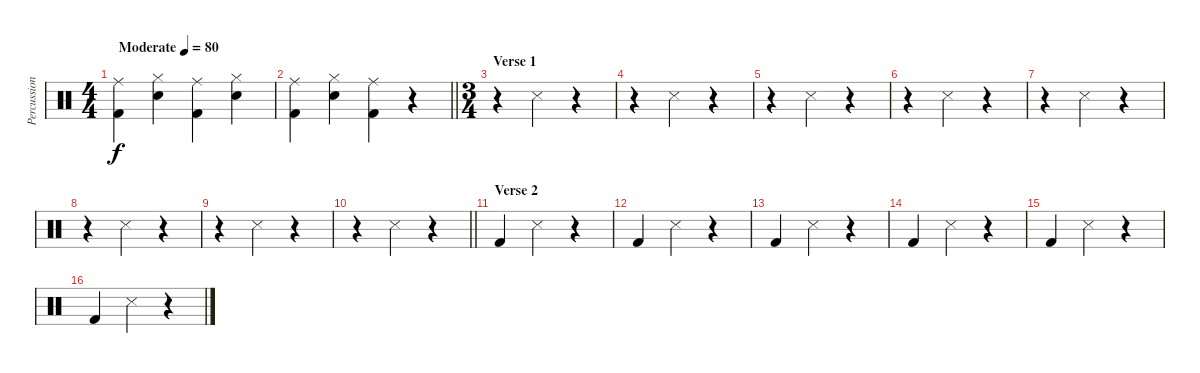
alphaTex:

\track ("Percussion" "Percussion") {instrument percussion}
\staff {score}
\articulation defaults
\ts (4 4)
\tempo (80 "Moderate")
\clef neutral
\ks c
("Ride (middle)" "Kick (hit) 2").4{dy f} ("Snare (hit) 2" "Hi-Hat (closed)").4 ("Ride (middle)" "Kick (hit) 2").4 ("Snare (hit) 2" "Hi-Hat (closed)").4 |
\barLineRight lightlight
("Ride (middle)" "Kick (hit) 2").4 ("Snare (hit) 2" "Hi-Hat (closed)").4 ("Ride (middle)" "Kick (hit) 2").4 r.4 |
\ts (3 4)
\section ("" "Verse 1")
r.4 "Snare (side stick) 3".4 r.4 |
r.4 "Snare (side stick) 3".4 r.4 |
r.4 "Snare (side stick) 3".4 r.4 |
r.4 "Snare (side stick) 3".4 r.4 |
r.4 "Snare (side stick) 3".4 r.4 |
r.4 "Snare (side stick) 3".4 r.4 |
r.4 "Snare (side stick) 3".4 r.4 |
\barLineRight lightlight
r.4 "Snare (side stick) 3".4 r.4 |
\section ("" "Verse 2")
"Kick (hit) 2".4 "Snare (side stick) 3".4 r.4 |
"Kick (hit) 2".4 "Snare (side stick) 3".4 r.4 |
"Kick (hit) 2".4 "Snare (side stick) 3".4 r.4 |
"Kick (hit) 2".4 "Snare (side stick) 3".4 r.4 |
"Kick (hit) 2".4 "Snare (side stick) 3".4 r.4 |
"Kick (hit) 2".4 "Snare (side stick) 3".4 r.4
